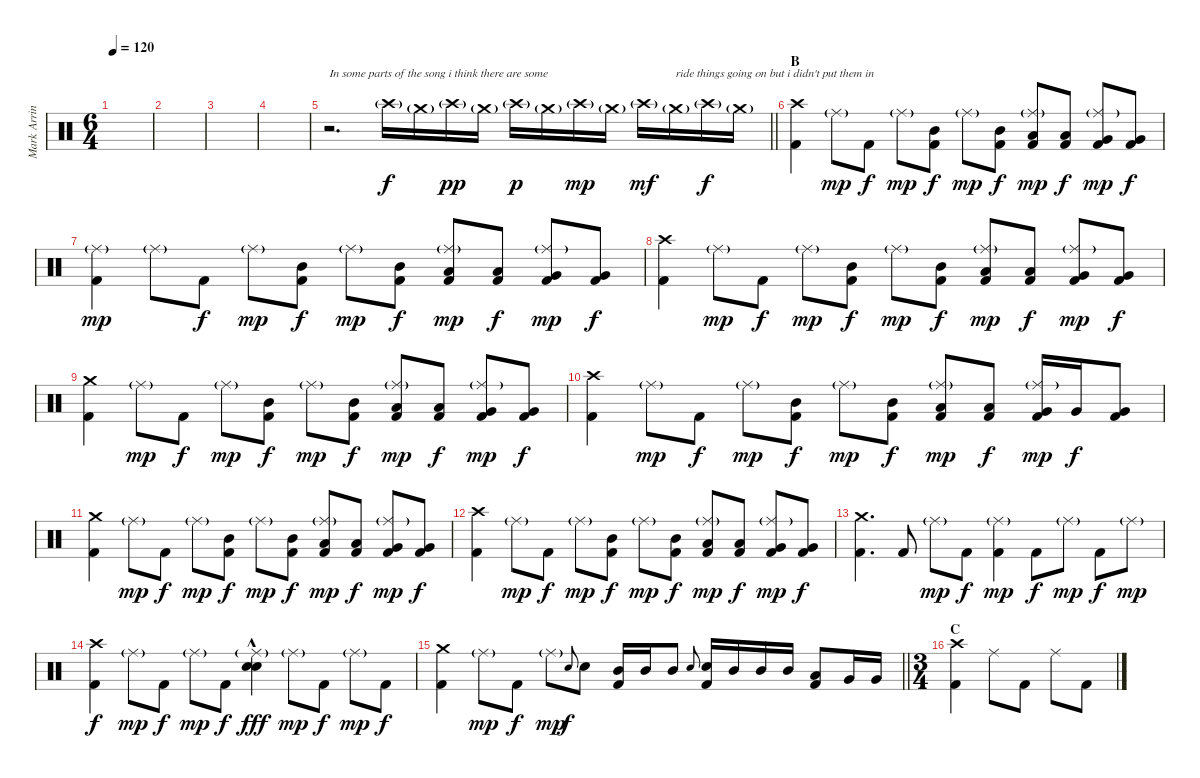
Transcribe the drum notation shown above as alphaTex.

\track ("Mark Arrington Drums" "Mark Arrin") {instrument percussion}
\staff {score}
\articulation defaults
\ts (6 4)
\tempo 120
\clef neutral
\ks c
|
|
|
|
\barLineRight lightlight
r.2{d txt "In some parts of the song i think there are some"} "Crash high (hit)"{g}.16 "Crash medium (hit)"{g}.16 "Crash high (hit)"{g}.16{dy pp} "Crash medium (hit)"{g}.16 "Crash high (hit)"{g}.16{dy p} "Crash medium (hit)"{g}.16 "Crash high (hit)"{g}.16{dy mp} "Crash medium (hit)"{g}.16 "Crash high (hit)"{g}.16{dy mf} "Crash medium (hit)"{g}.16{txt "ride things going on but i didn't put them in"} "Crash high (hit)"{g}.16{dy f} "Crash medium (hit)"{g}.16 |
\section ("" "B")
("Crash high (hit)" "Kick (hit) 2").4 "Ride (middle)"{g}.8{dy mp} "Kick (hit) 2".8{dy f} "Ride (middle)"{g}.8{dy mp} ("Mid Tom (hit)" "Kick (hit) 2").8{dy f} "Ride (middle)"{g}.8{dy mp} ("Mid Tom (hit)" "Kick (hit) 2").8{dy f} ("Ride (middle)"{g} "Low Tom (hit)" "Kick (hit) 2").8{dy mp} ("Low Tom (hit)" "Kick (hit) 2").8{dy f} ("Ride (middle)"{g} "Very Low Tom (hit)" "Kick (hit) 2").8{dy mp} ("Very Low Tom (hit)" "Kick (hit) 2").8{dy f} |
("Ride (middle)"{g} "Kick (hit) 2").4{dy mp} "Ride (middle)"{g}.8 "Kick (hit) 2".8{dy f} "Ride (middle)"{g}.8{dy mp} ("Mid Tom (hit)" "Kick (hit) 2").8{dy f} "Ride (middle)"{g}.8{dy mp} ("Mid Tom (hit)" "Kick (hit) 2").8{dy f} ("Ride (middle)"{g} "Low Tom (hit)" "Kick (hit) 2").8{dy mp} ("Low Tom (hit)" "Kick (hit) 2").8{dy f} ("Ride (middle)"{g} "Very Low Tom (hit)" "Kick (hit) 2").8{dy mp} ("Very Low Tom (hit)" "Kick (hit) 2").8{dy f} |
("Crash high (hit)" "Kick (hit) 2").4 "Ride (middle)"{g}.8{dy mp} "Kick (hit) 2".8{dy f} "Ride (middle)"{g}.8{dy mp} ("Mid Tom (hit)" "Kick (hit) 2").8{dy f} "Ride (middle)"{g}.8{dy mp} ("Mid Tom (hit)" "Kick (hit) 2").8{dy f} ("Ride (middle)"{g} "Low Tom (hit)" "Kick (hit) 2").8{dy mp} ("Low Tom (hit)" "Kick (hit) 2").8{dy f} ("Ride (middle)"{g} "Very Low Tom (hit)" "Kick (hit) 2").8{dy mp} ("Very Low Tom (hit)" "Kick (hit) 2").8{dy f} |
("Crash medium (hit)" "Kick (hit) 2").4 "Ride (middle)"{g}.8{dy mp} "Kick (hit) 2".8{dy f} "Ride (middle)"{g}.8{dy mp} ("Mid Tom (hit)" "Kick (hit) 2").8{dy f} "Ride (middle)"{g}.8{dy mp} ("Mid Tom (hit)" "Kick (hit) 2").8{dy f} ("Ride (middle)"{g} "Low Tom (hit)" "Kick (hit) 2").8{dy mp} ("Low Tom (hit)" "Kick (hit) 2").8{dy f} ("Ride (middle)"{g} "Very Low Tom (hit)" "Kick (hit) 2").8{dy mp} ("Very Low Tom (hit)" "Kick (hit) 2").8{dy f} |
("Crash high (hit)" "Kick (hit) 2").4 "Ride (middle)"{g}.8{dy mp} "Kick (hit) 2".8{dy f} "Ride (middle)"{g}.8{dy mp} ("Mid Tom (hit)" "Kick (hit) 2").8{dy f} "Ride (middle)"{g}.8{dy mp} ("Mid Tom (hit)" "Kick (hit) 2").8{dy f} ("Ride (middle)"{g} "Low Tom (hit)" "Kick (hit) 2").8{dy mp} ("Low Tom (hit)" "Kick (hit) 2").8{dy f} ("Ride (middle)"{g} "Very Low Tom (hit)" "Kick (hit) 2").16{dy mp} "Very Low Tom (hit)".16{dy f} ("Very Low Tom (hit)" "Kick (hit) 2").8 |
("Crash medium (hit)" "Kick (hit) 2").4 "Ride (middle)"{g}.8{dy mp} "Kick (hit) 2".8{dy f} "Ride (middle)"{g}.8{dy mp} ("Mid Tom (hit)" "Kick (hit) 2").8{dy f} "Ride (middle)"{g}.8{dy mp} ("Mid Tom (hit)" "Kick (hit) 2").8{dy f} ("Ride (middle)"{g} "Low Tom (hit)" "Kick (hit) 2").8{dy mp} ("Low Tom (hit)" "Kick (hit) 2").8{dy f} ("Ride (middle)"{g} "Very Low Tom (hit)" "Kick (hit) 2").8{dy mp} ("Very Low Tom (hit)" "Kick (hit) 2").8{dy f} |
("Crash high (hit)" "Kick (hit) 2").4 "Ride (middle)"{g}.8{dy mp} "Kick (hit) 2".8{dy f} "Ride (middle)"{g}.8{dy mp} ("Mid Tom (hit)" "Kick (hit) 2").8{dy f} "Ride (middle)"{g}.8{dy mp} ("Mid Tom (hit)" "Kick (hit) 2").8{dy f} ("Ride (middle)"{g} "Low Tom (hit)" "Kick (hit) 2").8{dy mp} ("Low Tom (hit)" "Kick (hit) 2").8{dy f} ("Ride (middle)"{g} "Very Low Tom (hit)" "Kick (hit) 2").8{dy mp} ("Very Low Tom (hit)" "Kick (hit) 2").8{dy f} |
("Crash medium (hit)" "Kick (hit) 2").4{d} "Kick (hit) 2".8 "Ride (middle)"{g}.8{dy mp} "Kick (hit) 2".8{dy f} ("Ride (middle)"{g} "Kick (hit) 2").4{dy mp} "Kick (hit) 2".8{dy f} "Ride (middle)"{g}.8{dy mp} "Kick (hit) 2".8{dy f} "Ride (middle)"{g}.8{dy mp} |
("Crash high (hit)" "Kick (hit) 2").4{dy f} "Ride (middle)"{g}.8{dy mp} "Kick (hit) 2".8{dy f} "Ride (middle)"{g}.8{dy mp} "Kick (hit) 2".8{dy f} ("Ride (middle)"{g} "Electric Snare (hit)"{hac} "Snare (hit) 2").4{dy fff} "Ride (middle)"{g}.8{dy mp} "Kick (hit) 2".8{dy f} "Ride (middle)"{g}.8{dy mp} "Kick (hit) 2".8{dy f} |
\barLineRight lightlight
("Crash medium (hit)" "Kick (hit) 2").4 "Ride (middle)"{g}.8{dy mp} "Kick (hit) 2".8{dy f} "Ride (middle)"{g}.8{dy mp} "Electric Snare (hit)".8{gr onbeat dy f} "Electric Snare (hit)".8 ("Mid Tom (hit)" "Kick (hit) 2").16 "Mid Tom (hit)".16 "Mid Tom (hit)".8 "Electric Snare (hit)".8{gr onbeat} ("Electric Snare (hit)" "Kick (hit) 2").16 "Mid Tom (hit)".16 "Mid Tom (hit)".16 "Mid Tom (hit)".16 ("Low Tom (hit)" "Kick (hit) 2").8 "Very Low Tom (hit)".16 "Very Low Tom (hit)".16 |
\ts (3 4)
\section ("" "C")
("Crash high (hit)" "Kick (hit) 2").4 "Ride (middle)".8 "Kick (hit) 2".8 "Ride (middle)".8 "Kick (hit) 2".8
